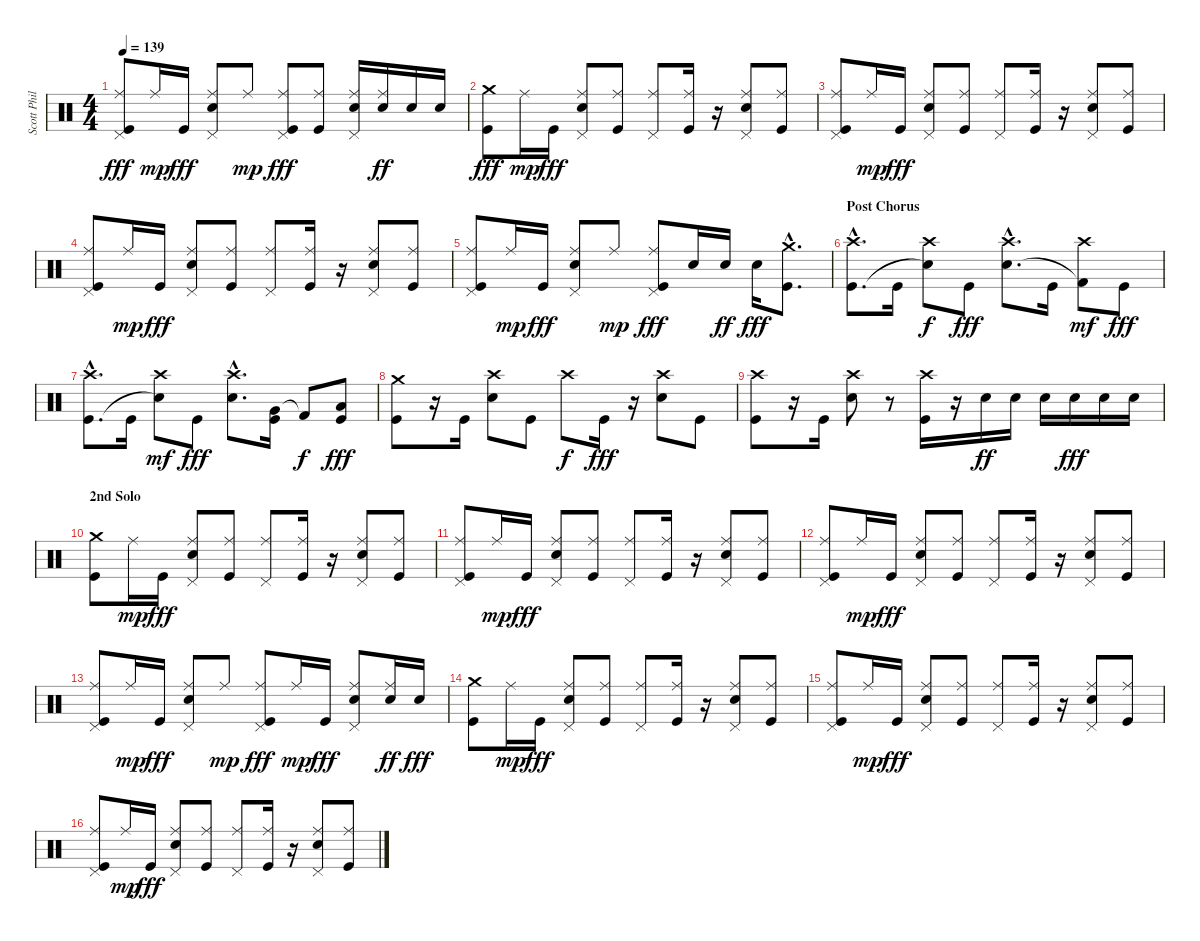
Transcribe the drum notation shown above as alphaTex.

\track ("Scott Phillips - Drums" "Scott Phil") {instrument percussion}
\staff {score}
\articulation defaults
\ts (4 4)
\tempo 139
\clef neutral
\ks c
("Pedal Hi-Hat (hit)" "Ride (middle)" "Kick (hit)").8{dy fff} "Ride (middle)".16{dy mp} "Kick (hit)".16{dy fff} ("Pedal Hi-Hat (hit)" "Ride (middle)" "Electric Snare (hit)").8 "Ride (middle)".8{dy mp} ("Pedal Hi-Hat (hit)" "Ride (middle)" "Kick (hit)").8{dy fff} ("Ride (middle)" "Kick (hit)").8 ("Pedal Hi-Hat (hit)" "Ride (middle)" "Electric Snare (hit)").16 ("Ride (middle)" "Electric Snare (hit)").16{dy ff} "Electric Snare (hit)".16 "Electric Snare (hit)".16 |
("Crash medium (hit)" "Kick (hit)").8{dy fff} "Ride (middle)".16{dy mp} "Kick (hit)".16{dy fff} ("Pedal Hi-Hat (hit)" "Ride (middle)" "Electric Snare (hit)").8 ("Ride (middle)" "Kick (hit)").8 ("Pedal Hi-Hat (hit)" "Ride (middle)").8 ("Ride (middle)" "Kick (hit)").16 r.16 ("Pedal Hi-Hat (hit)" "Ride (middle)" "Electric Snare (hit)").8 ("Ride (middle)" "Kick (hit)").8 |
("Pedal Hi-Hat (hit)" "Ride (middle)" "Kick (hit)").8 "Ride (middle)".16{dy mp} "Kick (hit)".16{dy fff} ("Pedal Hi-Hat (hit)" "Ride (middle)" "Electric Snare (hit)").8 ("Ride (middle)" "Kick (hit)").8 ("Pedal Hi-Hat (hit)" "Ride (middle)").8 ("Ride (middle)" "Kick (hit)").16 r.16 ("Pedal Hi-Hat (hit)" "Ride (middle)" "Electric Snare (hit)").8 ("Ride (middle)" "Kick (hit)").8 |
("Pedal Hi-Hat (hit)" "Ride (middle)" "Kick (hit)").8 "Ride (middle)".16{dy mp} "Kick (hit)".16{dy fff} ("Pedal Hi-Hat (hit)" "Ride (middle)" "Electric Snare (hit)").8 ("Ride (middle)" "Kick (hit)").8 ("Pedal Hi-Hat (hit)" "Ride (middle)").8 ("Ride (middle)" "Kick (hit)").16 r.16 ("Pedal Hi-Hat (hit)" "Ride (middle)" "Electric Snare (hit)").8 ("Ride (middle)" "Kick (hit)").8 |
("Pedal Hi-Hat (hit)" "Ride (middle)" "Kick (hit)").8 "Ride (middle)".16{dy mp} "Kick (hit)".16{dy fff} ("Pedal Hi-Hat (hit)" "Ride (middle)" "Electric Snare (hit)").8 "Ride (middle)".8{dy mp} ("Pedal Hi-Hat (hit)" "Ride (middle)" "Kick (hit)").8{dy fff} "Electric Snare (hit)".16 "Electric Snare (hit)".16{dy ff} "Electric Snare (hit)".16{dy fff} ("Crash medium (hit)"{hac} "Kick (hit)"{hac}).8{d} |
\section ("" "Post Chorus")
("Crash high (hit)"{hac} "Kick (hit)"{hac}).8{d} "Kick (hit)".16 ("Crash high (hit)" "Snare (hit)"{t}).8{dy f} "Kick (hit)".8{dy fff} ("Crash high (hit)"{hac} "Electric Snare (hit)"{hac}).8{d} "Kick (hit)".16 ("Crash high (hit)" "Kick (hit) 2"{t}).8{dy mf} "Kick (hit)".8{dy fff} |
("Crash high (hit)"{hac} "Kick (hit)"{hac}).8{d} "Kick (hit)".16 ("Crash high (hit)" "Snare (hit)"{t}).8{dy mf} "Kick (hit)".8{dy fff} ("Crash high (hit)"{hac} "Electric Snare (hit)"{hac}).8{d} ("Very Low Tom (hit)" "Kick (hit)").16 "Kick (hit) 2"{t}.8{dy f} ("Low Floor Tom (hit)" "Kick (hit)").8{dy fff} |
("Crash medium (hit)" "Kick (hit)").8 r.16 "Kick (hit)".16 ("Crash high (hit)" "Electric Snare (hit)").8 "Kick (hit)".8 "Crash high (hit)".8{dy f} "Kick (hit)".16{dy fff} r.16 ("Crash high (hit)" "Electric Snare (hit)").8 "Kick (hit)".8 |
("Crash high (hit)" "Kick (hit)").8 r.16 "Kick (hit)".16 ("Crash high (hit)" "Electric Snare (hit)").8 r.8 ("Crash high (hit)" "Kick (hit)").16 r.16 "Electric Snare (hit)".16{dy ff} "Electric Snare (hit)".16 "Electric Snare (hit)".16 "Electric Snare (hit)".16{dy fff} "Electric Snare (hit)".16 "Electric Snare (hit)".16 |
\section ("" "2nd Solo")
("Crash medium (hit)" "Kick (hit)").8 "Ride (middle)".16{dy mp} "Kick (hit)".16{dy fff} ("Pedal Hi-Hat (hit)" "Ride (middle)" "Electric Snare (hit)").8 ("Ride (middle)" "Kick (hit)").8 ("Pedal Hi-Hat (hit)" "Ride (middle)").8 ("Ride (middle)" "Kick (hit)").16 r.16 ("Pedal Hi-Hat (hit)" "Ride (middle)" "Electric Snare (hit)").8 ("Ride (middle)" "Kick (hit)").8 |
("Pedal Hi-Hat (hit)" "Ride (middle)" "Kick (hit)").8 "Ride (middle)".16{dy mp} "Kick (hit)".16{dy fff} ("Pedal Hi-Hat (hit)" "Ride (middle)" "Electric Snare (hit)").8 ("Ride (middle)" "Kick (hit)").8 ("Pedal Hi-Hat (hit)" "Ride (middle)").8 ("Ride (middle)" "Kick (hit)").16 r.16 ("Pedal Hi-Hat (hit)" "Ride (middle)" "Electric Snare (hit)").8 ("Ride (middle)" "Kick (hit)").8 |
("Pedal Hi-Hat (hit)" "Ride (middle)" "Kick (hit)").8 "Ride (middle)".16{dy mp} "Kick (hit)".16{dy fff} ("Pedal Hi-Hat (hit)" "Ride (middle)" "Electric Snare (hit)").8 ("Ride (middle)" "Kick (hit)").8 ("Pedal Hi-Hat (hit)" "Ride (middle)").8 ("Ride (middle)" "Kick (hit)").16 r.16 ("Pedal Hi-Hat (hit)" "Ride (middle)" "Electric Snare (hit)").8 ("Ride (middle)" "Kick (hit)").8 |
("Pedal Hi-Hat (hit)" "Ride (middle)" "Kick (hit)").8 "Ride (middle)".16{dy mp} "Kick (hit)".16{dy fff} ("Pedal Hi-Hat (hit)" "Ride (middle)" "Electric Snare (hit)").8 "Ride (middle)".8{dy mp} ("Pedal Hi-Hat (hit)" "Ride (middle)" "Kick (hit)").8{dy fff} "Ride (middle)".16{dy mp} "Kick (hit)".16{dy fff} ("Pedal Hi-Hat (hit)" "Ride (middle)" "Electric Snare (hit)").8 ("Ride (middle)" "Electric Snare (hit)").16{dy ff} "Electric Snare (hit)".16{dy fff} |
("Crash medium (hit)" "Kick (hit)").8 "Ride (middle)".16{dy mp} "Kick (hit)".16{dy fff} ("Pedal Hi-Hat (hit)" "Ride (middle)" "Electric Snare (hit)").8 ("Ride (middle)" "Kick (hit)").8 ("Pedal Hi-Hat (hit)" "Ride (middle)").8 ("Ride (middle)" "Kick (hit)").16 r.16 ("Pedal Hi-Hat (hit)" "Ride (middle)" "Electric Snare (hit)").8 ("Ride (middle)" "Kick (hit)").8 |
("Pedal Hi-Hat (hit)" "Ride (middle)" "Kick (hit)").8 "Ride (middle)".16{dy mp} "Kick (hit)".16{dy fff} ("Pedal Hi-Hat (hit)" "Ride (middle)" "Electric Snare (hit)").8 ("Ride (middle)" "Kick (hit)").8 ("Pedal Hi-Hat (hit)" "Ride (middle)").8 ("Ride (middle)" "Kick (hit)").16 r.16 ("Pedal Hi-Hat (hit)" "Ride (middle)" "Electric Snare (hit)").8 ("Ride (middle)" "Kick (hit)").8 |
("Pedal Hi-Hat (hit)" "Ride (middle)" "Kick (hit)").8 "Ride (middle)".16{dy mp} "Kick (hit)".16{dy fff} ("Pedal Hi-Hat (hit)" "Ride (middle)" "Electric Snare (hit)").8 ("Ride (middle)" "Kick (hit)").8 ("Pedal Hi-Hat (hit)" "Ride (middle)").8 ("Ride (middle)" "Kick (hit)").16 r.16 ("Pedal Hi-Hat (hit)" "Ride (middle)" "Electric Snare (hit)").8 ("Ride (middle)" "Kick (hit)").8
